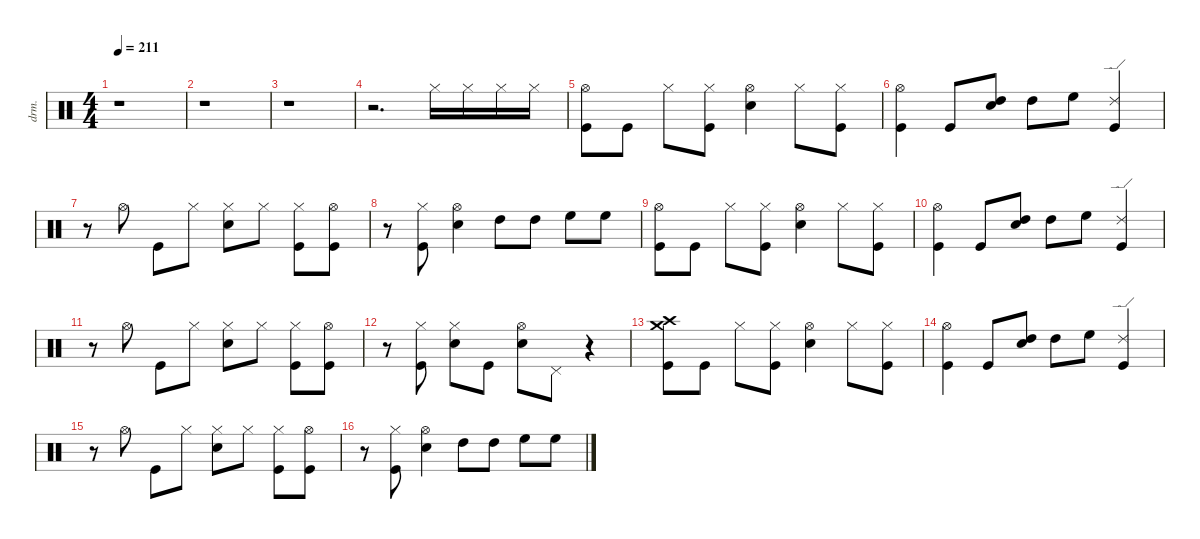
\defaultSystemsLayout 4
\hideDynamics
\bracketExtendMode nobrackets
\otherSystemsTrackNameOrientation horizontal
\track ("Drums" "drm.") {instrument percussion}
\staff {score}
\articulation defaults
\ts (4 4)
\tempo 211
\clef neutral
\ks c
r.1{dy f beam Down} |
r.1{beam Down} |
r.1{beam Down} |
r.2{d beam Down} "Hi-Hat (closed)"{acc #}.16{beam Down} "Hi-Hat (closed)"{acc #}.16{dy mf beam Down} "Hi-Hat (closed)"{acc #}.16{dy f beam Down} "Hi-Hat (closed)"{acc #}.16{dy mf beam Down} |
("Kick (hit)" "Hi-Hat (open)"{acc #}).8{dy f beam Down} "Kick (hit)".8{dy fff beam Down} "Hi-Hat (closed)"{acc #}.8{dy ff beam Down} ("Kick (hit)" "Hi-Hat (closed)"{acc #}).8{beam Down} ("Snare (hit) 2" "Hi-Hat (open)"{acc #}).4{beam Down} "Hi-Hat (closed)"{acc #}.8{beam Down} ("Kick (hit)" "Hi-Hat (closed)"{acc #}).8{dy f beam Down} |
("Kick (hit)" "Hi-Hat (open)"{acc #}).4{dy fff beam Down} "Kick (hit)".8{dy ff beam Up} ("Snare (hit) 2" "High Tom (hit)").8{beam Up} "High Tom (hit)".8{dy mp beam Down} "High Floor Tom (hit)".8{dy ff beam Down} ("Kick (hit)" "Ride (edge) 2").4{beam Up} |
r.8{beam Down} "Hi-Hat (open)"{acc #}.8{beam Down} "Kick (hit)".8{beam Down} "Hi-Hat (closed)"{acc #}.8{dy mp beam Down} ("Snare (hit) 2" "Hi-Hat (closed)"{acc #}).8{dy ff beam Down} "Hi-Hat (closed)"{acc #}.8{dy mp beam Down} ("Kick (hit)" "Hi-Hat (closed)"{acc #}).8{dy ff beam Down} ("Kick (hit)" "Hi-Hat (open)"{acc #}).8{beam Down} |
r.8{beam Down} ("Kick (hit)" "Hi-Hat (closed)"{acc #}).8{beam Down} ("Snare (hit) 2" "Hi-Hat (open)"{acc #}).4{beam Down} "High Tom (hit)".8{beam Down} "High Tom (hit)".8{dy f beam Down} "High Floor Tom (hit)".8{dy ff beam Down} "High Floor Tom (hit)".8{dy f beam Down} |
("Kick (hit)" "Hi-Hat (open)"{acc #}).8{beam Down} "Kick (hit)".8{dy fff beam Down} "Hi-Hat (closed)"{acc #}.8{dy ff beam Down} ("Kick (hit)" "Hi-Hat (closed)"{acc #}).8{beam Down} ("Snare (hit) 2" "Hi-Hat (open)"{acc #}).4{beam Down} "Hi-Hat (closed)"{acc #}.8{beam Down} ("Kick (hit)" "Hi-Hat (closed)"{acc #}).8{dy f beam Down} |
("Kick (hit)" "Hi-Hat (open)"{acc #}).4{dy fff beam Down} "Kick (hit)".8{dy ff beam Up} ("Snare (hit) 2" "High Tom (hit)").8{beam Up} "High Tom (hit)".8{dy mp beam Down} "High Floor Tom (hit)".8{dy ff beam Down} ("Kick (hit)" "Ride (edge) 2").4{beam Up} |
r.8{beam Down} "Hi-Hat (open)"{acc #}.8{beam Down} "Kick (hit)".8{beam Down} "Hi-Hat (closed)"{acc #}.8{dy p beam Down} ("Snare (hit) 2" "Hi-Hat (closed)"{acc #}).8{dy ff beam Down} "Hi-Hat (closed)"{acc #}.8{dy mp beam Down} ("Kick (hit)" "Hi-Hat (closed)"{acc #}).8{dy ff beam Down} ("Kick (hit)" "Hi-Hat (open)"{acc #}).8{beam Down} |
r.8{beam Down} ("Kick (hit)" "Hi-Hat (closed)"{acc #}).8{beam Down} ("Snare (hit) 2" "Hi-Hat (closed)"{acc #}).8{dy mp beam Down} "Kick (hit)".8{dy mf beam Down} ("Snare (hit) 2" "Hi-Hat (open)"{acc #}).8{dy ff beam Down} "Pedal Hi-Hat (hit)"{acc #}.8{beam Down} r.4{beam Down} |
("Kick (hit)" "Crash high (hit)"{acc #} "Crash medium (hit)").8{dy f beam Down} "Kick (hit)".8{dy fff beam Down} "Hi-Hat (closed)"{acc #}.8{dy ff beam Down} ("Kick (hit)" "Hi-Hat (closed)"{acc #}).8{beam Down} ("Snare (hit) 2" "Hi-Hat (open)"{acc #}).4{beam Down} "Hi-Hat (closed)"{acc #}.8{beam Down} ("Kick (hit)" "Hi-Hat (closed)"{acc #}).8{dy f beam Down} |
("Kick (hit)" "Hi-Hat (open)"{acc #}).4{dy fff beam Down} "Kick (hit)".8{dy ff beam Up} ("Snare (hit) 2" "High Tom (hit)").8{beam Up} "High Tom (hit)".8{dy mp beam Down} "High Floor Tom (hit)".8{dy ff beam Down} ("Kick (hit)" "Ride (edge) 2").4{beam Up} |
r.8{beam Down} "Hi-Hat (open)"{acc #}.8{beam Down} "Kick (hit)".8{beam Down} "Hi-Hat (closed)"{acc #}.8{dy mp beam Down} ("Snare (hit) 2" "Hi-Hat (closed)"{acc #}).8{dy ff beam Down} "Hi-Hat (closed)"{acc #}.8{dy mp beam Down} ("Kick (hit)" "Hi-Hat (closed)"{acc #}).8{dy f beam Down} ("Kick (hit)" "Hi-Hat (open)"{acc #}).8{dy fff beam Down} |
r.8{beam Down} ("Kick (hit)" "Hi-Hat (closed)"{acc #}).8{dy ff beam Down} ("Snare (hit) 2" "Hi-Hat (open)"{acc #}).4{beam Down} "High Tom (hit)".8{beam Down} "High Tom (hit)".8{dy f beam Down} "High Floor Tom (hit)".8{dy ff beam Down} "High Floor Tom (hit)".8{dy f beam Down}
